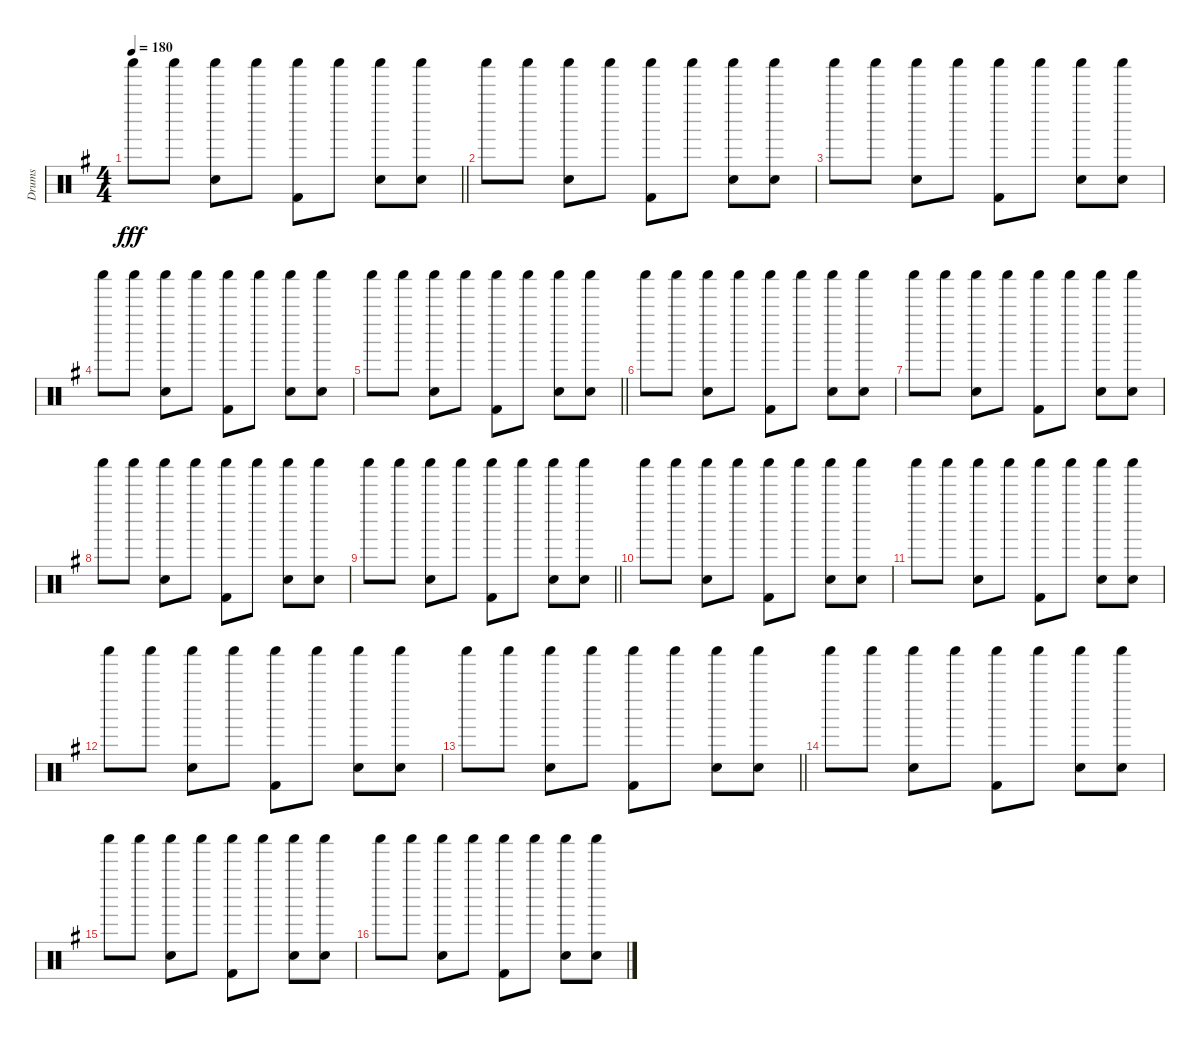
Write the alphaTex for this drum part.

\track ("Drums" "Drums") {instrument percussion}
\staff {score}
\articulation defaults
\ts (4 4)
\tempo 180
\clef neutral
\barLineRight lightlight
\ks eminor "Shaker (hit)".8{dy fff} "Shaker (hit)".8
("Shaker (hit)" "Snare (hit) 2").8 "Shaker (hit)".8 ("Shaker (hit)" "Kick (hit) 2").8 "Shaker (hit)".8 ("Shaker (hit)" "Snare (hit) 2").8 ("Shaker (hit)" "Snare (hit) 2").8 |
"Shaker (hit)".8 "Shaker (hit)".8 ("Shaker (hit)" "Snare (hit) 2").8 "Shaker (hit)".8 ("Shaker (hit)" "Kick (hit) 2").8 "Shaker (hit)".8 ("Shaker (hit)" "Snare (hit) 2").8 ("Shaker (hit)" "Snare (hit) 2").8 |
"Shaker (hit)".8 "Shaker (hit)".8 ("Shaker (hit)" "Snare (hit) 2").8 "Shaker (hit)".8 ("Shaker (hit)" "Kick (hit) 2").8 "Shaker (hit)".8 ("Shaker (hit)" "Snare (hit) 2").8 ("Shaker (hit)" "Snare (hit) 2").8 |
"Shaker (hit)".8 "Shaker (hit)".8 ("Shaker (hit)" "Snare (hit) 2").8 "Shaker (hit)".8 ("Shaker (hit)" "Kick (hit) 2").8 "Shaker (hit)".8 ("Shaker (hit)" "Snare (hit) 2").8 ("Shaker (hit)" "Snare (hit) 2").8 |
\barLineRight lightlight "Shaker (hit)".8 "Shaker (hit)".8
("Shaker (hit)" "Snare (hit) 2").8 "Shaker (hit)".8 ("Shaker (hit)" "Kick (hit) 2").8 "Shaker (hit)".8 ("Shaker (hit)" "Snare (hit) 2").8 ("Shaker (hit)" "Snare (hit) 2").8 |
"Shaker (hit)".8 "Shaker (hit)".8 ("Shaker (hit)" "Snare (hit) 2").8 "Shaker (hit)".8 ("Shaker (hit)" "Kick (hit) 2").8 "Shaker (hit)".8 ("Shaker (hit)" "Snare (hit) 2").8 ("Shaker (hit)" "Snare (hit) 2").8 |
"Shaker (hit)".8 "Shaker (hit)".8 ("Shaker (hit)" "Snare (hit) 2").8 "Shaker (hit)".8 ("Shaker (hit)" "Kick (hit) 2").8 "Shaker (hit)".8 ("Shaker (hit)" "Snare (hit) 2").8 ("Shaker (hit)" "Snare (hit) 2").8 |
"Shaker (hit)".8 "Shaker (hit)".8 ("Shaker (hit)" "Snare (hit) 2").8 "Shaker (hit)".8 ("Shaker (hit)" "Kick (hit) 2").8 "Shaker (hit)".8 ("Shaker (hit)" "Snare (hit) 2").8 ("Shaker (hit)" "Snare (hit) 2").8 |
\barLineRight lightlight "Shaker (hit)".8 "Shaker (hit)".8
("Shaker (hit)" "Snare (hit) 2").8 "Shaker (hit)".8 ("Shaker (hit)" "Kick (hit) 2").8 "Shaker (hit)".8 ("Shaker (hit)" "Snare (hit) 2").8 ("Shaker (hit)" "Snare (hit) 2").8 |
"Shaker (hit)".8 "Shaker (hit)".8 ("Shaker (hit)" "Snare (hit) 2").8 "Shaker (hit)".8 ("Shaker (hit)" "Kick (hit) 2").8 "Shaker (hit)".8 ("Shaker (hit)" "Snare (hit) 2").8 ("Shaker (hit)" "Snare (hit) 2").8 |
"Shaker (hit)".8 "Shaker (hit)".8 ("Shaker (hit)" "Snare (hit) 2").8 "Shaker (hit)".8 ("Shaker (hit)" "Kick (hit) 2").8 "Shaker (hit)".8 ("Shaker (hit)" "Snare (hit) 2").8 ("Shaker (hit)" "Snare (hit) 2").8 |
"Shaker (hit)".8 "Shaker (hit)".8 ("Shaker (hit)" "Snare (hit) 2").8 "Shaker (hit)".8 ("Shaker (hit)" "Kick (hit) 2").8 "Shaker (hit)".8 ("Shaker (hit)" "Snare (hit) 2").8 ("Shaker (hit)" "Snare (hit) 2").8 |
\barLineRight lightlight "Shaker (hit)".8 "Shaker (hit)".8
("Shaker (hit)" "Snare (hit) 2").8 "Shaker (hit)".8 ("Shaker (hit)" "Kick (hit) 2").8 "Shaker (hit)".8 ("Shaker (hit)" "Snare (hit) 2").8 ("Shaker (hit)" "Snare (hit) 2").8 |
"Shaker (hit)".8 "Shaker (hit)".8 ("Shaker (hit)" "Snare (hit) 2").8 "Shaker (hit)".8 ("Shaker (hit)" "Kick (hit) 2").8 "Shaker (hit)".8 ("Shaker (hit)" "Snare (hit) 2").8 ("Shaker (hit)" "Snare (hit) 2").8 |
"Shaker (hit)".8 "Shaker (hit)".8 ("Shaker (hit)" "Snare (hit) 2").8 "Shaker (hit)".8 ("Shaker (hit)" "Kick (hit) 2").8 "Shaker (hit)".8 ("Shaker (hit)" "Snare (hit) 2").8 ("Shaker (hit)" "Snare (hit) 2").8 |
"Shaker (hit)".8 "Shaker (hit)".8 ("Shaker (hit)" "Snare (hit) 2").8 "Shaker (hit)".8 ("Shaker (hit)" "Kick (hit) 2").8 "Shaker (hit)".8 ("Shaker (hit)" "Snare (hit) 2").8 ("Shaker (hit)" "Snare (hit) 2").8
